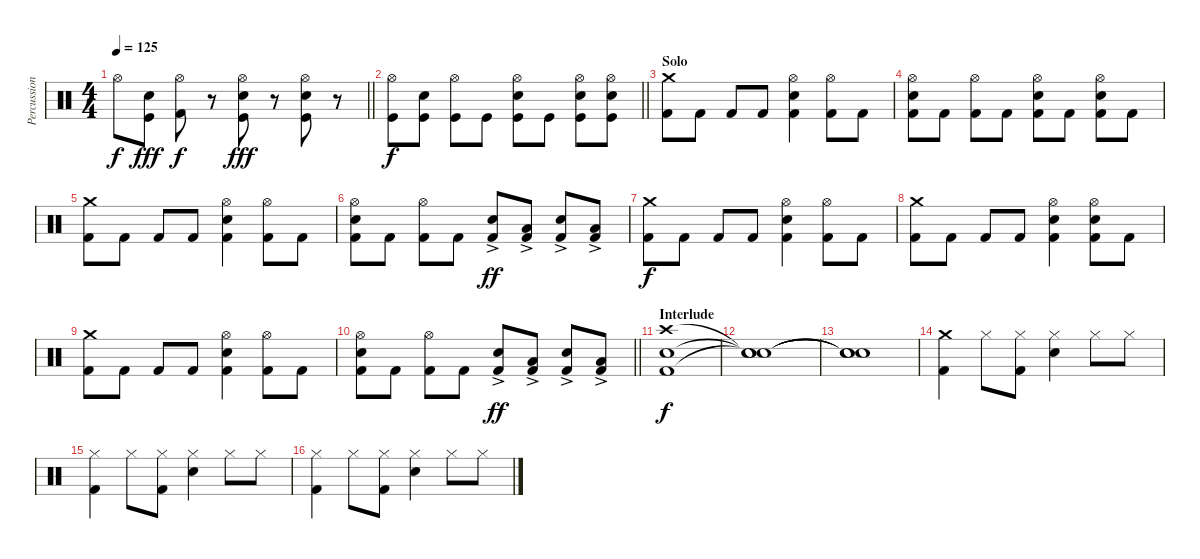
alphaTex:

\track ("Percussion" "Percussion") {instrument percussion}
\staff {score}
\articulation defaults
\ts (4 4)
\tempo 125
\clef neutral
\barLineRight lightlight
\ks c "Hi-Hat (open)".8{dy f}
("Electric Snare (hit)" "Kick (hit)").8{dy fff} ("Hi-Hat (open)" "Kick (hit) 2").8{dy f} r.8 ("Hi-Hat (open)" "Electric Snare (hit)" "Kick (hit)").8{dy fff} r.8 ("Hi-Hat (open)" "Electric Snare (hit)" "Kick (hit)").8 r.8 |
\barLineRight lightlight
("Hi-Hat (open)" "Kick (hit)").8{dy f} ("Snare (hit) 2" "Kick (hit)").8 ("Hi-Hat (open)" "Kick (hit)").8 "Kick (hit)".8 ("Hi-Hat (open)" "Snare (hit) 2" "Kick (hit)").8 "Kick (hit)".8 ("Hi-Hat (open)" "Snare (hit) 2" "Kick (hit)").8 ("Hi-Hat (open)" "Snare (hit) 2" "Kick (hit)").8 |
\section ("" "Solo")
("Crash medium (hit)" "Kick (hit) 2").8 "Kick (hit) 2".8 "Kick (hit) 2".8 "Kick (hit) 2".8 ("Hi-Hat (open)" "Snare (hit) 2" "Kick (hit) 2").4 ("Hi-Hat (open)" "Kick (hit) 2").8 "Kick (hit) 2".8 |
("Hi-Hat (open)" "Snare (hit) 2" "Kick (hit) 2").8 "Kick (hit) 2".8 ("Hi-Hat (open)" "Kick (hit) 2").8 "Kick (hit) 2".8 ("Hi-Hat (open)" "Snare (hit) 2" "Kick (hit) 2").8 "Kick (hit) 2".8 ("Hi-Hat (open)" "Snare (hit) 2" "Kick (hit) 2").8 "Kick (hit) 2".8 |
("Crash medium (hit)" "Kick (hit) 2").8 "Kick (hit) 2".8 "Kick (hit) 2".8 "Kick (hit) 2".8 ("Hi-Hat (open)" "Snare (hit) 2" "Kick (hit) 2").4 ("Hi-Hat (open)" "Kick (hit) 2").8 "Kick (hit) 2".8 |
("Hi-Hat (open)" "Snare (hit) 2" "Kick (hit) 2").8 "Kick (hit) 2".8 ("Hi-Hat (open)" "Kick (hit) 2").8 "Kick (hit) 2".8 ("Snare (hit) 2"{ac} "Kick (hit) 2").8{dy ff} ("Low Floor Tom (hit)"{ac} "Kick (hit) 2").8 ("Snare (hit) 2"{ac} "Kick (hit) 2").8 ("Low Floor Tom (hit)"{ac} "Kick (hit) 2").8 |
("Crash medium (hit)" "Kick (hit) 2").8{dy f} "Kick (hit) 2".8 "Kick (hit) 2".8 "Kick (hit) 2".8 ("Hi-Hat (open)" "Snare (hit) 2" "Kick (hit) 2").4 ("Hi-Hat (open)" "Kick (hit) 2").8 "Kick (hit) 2".8 |
("Crash medium (hit)" "Kick (hit) 2").8 "Kick (hit) 2".8 "Kick (hit) 2".8 "Kick (hit) 2".8 ("Hi-Hat (open)" "Snare (hit) 2" "Kick (hit) 2").4 ("Hi-Hat (open)" "Snare (hit) 2" "Kick (hit) 2").8 "Kick (hit) 2".8 |
("Crash medium (hit)" "Kick (hit) 2").8 "Kick (hit) 2".8 "Kick (hit) 2".8 "Kick (hit) 2".8 ("Hi-Hat (open)" "Snare (hit) 2" "Kick (hit) 2").4 ("Hi-Hat (open)" "Kick (hit) 2").8 "Kick (hit) 2".8 |
\barLineRight lightlight
("Hi-Hat (open)" "Snare (hit) 2" "Kick (hit) 2").8 "Kick (hit) 2".8 ("Hi-Hat (open)" "Kick (hit) 2").8 "Kick (hit) 2".8 ("Snare (hit) 2"{ac} "Kick (hit) 2").8{dy ff} ("Low Floor Tom (hit)"{ac} "Kick (hit) 2").8 ("Snare (hit) 2"{ac} "Kick (hit) 2").8 ("Low Floor Tom (hit)"{ac} "Kick (hit) 2").8 |
\section ("" "Interlude")
("Crash high (hit)" "Snare (hit) 2" "Kick (hit) 2").1{dy f} |
("Snare (hit)"{t} "Snare (hit)"{t} "Snare (hit)"{t}).1 |
("Snare (hit)"{t} "Snare (hit)"{t} "Snare (hit)"{t}).1 |
("Crash medium (hit)" "Kick (hit) 2").4 "Hi-Hat (closed)".8 ("Hi-Hat (closed)" "Kick (hit) 2").8 ("Hi-Hat (closed)" "Snare (hit) 2").4 "Hi-Hat (closed)".8 "Hi-Hat (closed)".8 |
("Hi-Hat (closed)" "Kick (hit) 2").4 "Hi-Hat (closed)".8 ("Hi-Hat (closed)" "Kick (hit) 2").8 ("Hi-Hat (closed)" "Snare (hit) 2").4 "Hi-Hat (closed)".8 "Hi-Hat (closed)".8 |
("Hi-Hat (closed)" "Kick (hit) 2").4 "Hi-Hat (closed)".8 ("Hi-Hat (closed)" "Kick (hit) 2").8 ("Hi-Hat (closed)" "Snare (hit) 2").4 "Hi-Hat (closed)".8 "Hi-Hat (closed)".8
